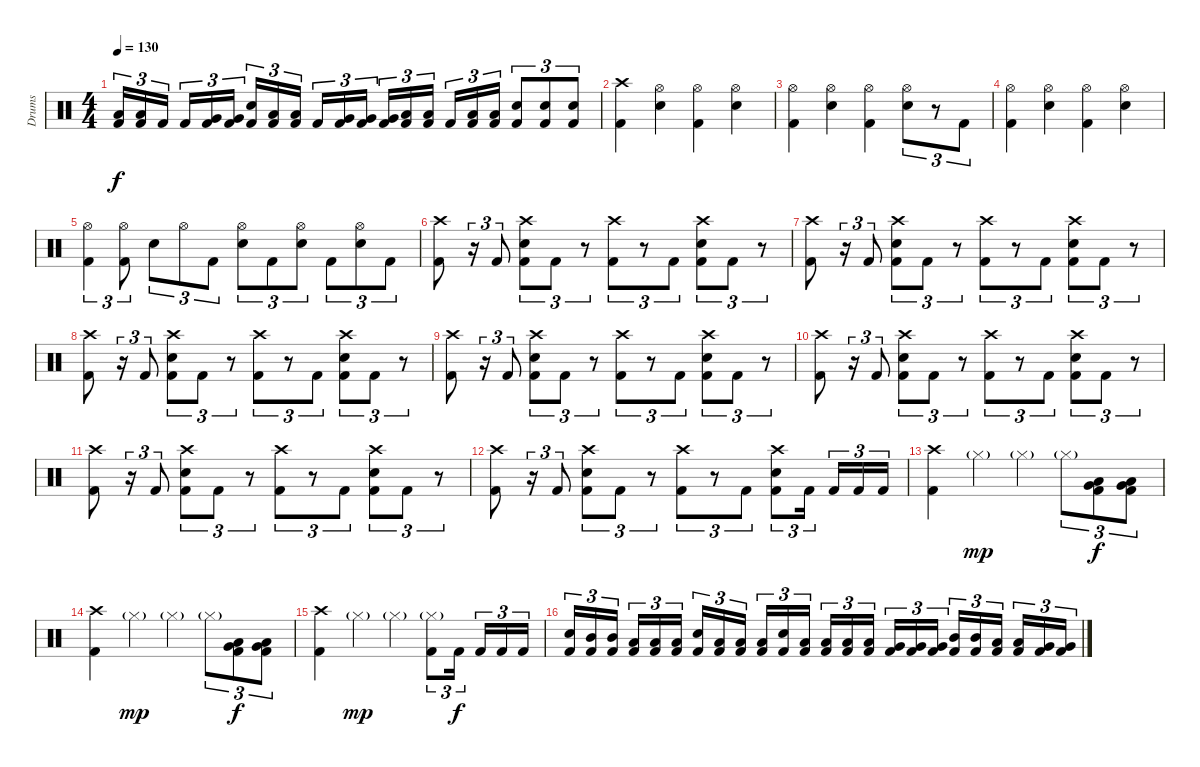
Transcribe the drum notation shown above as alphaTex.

\track ("Drums" "Drums") {instrument percussion}
\staff {score}
\articulation defaults
\ts (4 4)
\tempo 130
\clef neutral
\ks c
("Low Tom (hit)" "Kick (hit) 2").16{tu (3 2) dy f} ("Low Tom (hit)" "Kick (hit) 2").16{tu (3 2)} "Kick (hit) 2".16{tu (3 2) beam splitsecondary} "Kick (hit) 2".16{tu (3 2)} ("Very Low Tom (hit)" "Kick (hit) 2").16{tu (3 2)} ("Very Low Tom (hit)" "Kick (hit) 2").16{tu (3 2)} ("Electric Snare (hit)" "Kick (hit) 2").16{tu (3 2)} ("Low Tom (hit)" "Kick (hit) 2").16{tu (3 2)} ("Low Tom (hit)" "Kick (hit) 2").16{tu (3 2) beam splitsecondary} "Kick (hit) 2".16{tu (3 2)} ("Very Low Tom (hit)" "Kick (hit) 2").16{tu (3 2)} ("Very Low Tom (hit)" "Kick (hit) 2").16{tu (3 2)} ("Very Low Tom (hit)" "Kick (hit) 2").16{tu (3 2)} ("Low Floor Tom (hit)" "Kick (hit) 2").16{tu (3 2)} ("Low Floor Tom (hit)" "Kick (hit) 2").16{tu (3 2) beam splitsecondary} "Kick (hit) 2".16{tu (3 2)} ("Low Floor Tom (hit)" "Kick (hit) 2").16{tu (3 2)} ("Low Floor Tom (hit)" "Kick (hit) 2").16{tu (3 2)} ("Electric Snare (hit)" "Kick (hit) 2").8{tu (3 2)} ("Electric Snare (hit)" "Kick (hit) 2").8{tu (3 2)} ("Electric Snare (hit)" "Kick (hit) 2").8{tu (3 2)} |
("Crash high (hit)" "Kick (hit) 2").4 ("Hi-Hat (open)" "Electric Snare (hit)").4 ("Hi-Hat (open)" "Kick (hit) 2").4 ("Hi-Hat (open)" "Electric Snare (hit)").4 |
("Hi-Hat (open)" "Kick (hit) 2").4 ("Hi-Hat (open)" "Electric Snare (hit)").4 ("Hi-Hat (open)" "Kick (hit) 2").4 ("Hi-Hat (open)" "Electric Snare (hit)").8{tu (3 2)} r.8{tu (3 2)} "Kick (hit) 2".8{tu (3 2)} |
("Hi-Hat (open)" "Kick (hit) 2").4 ("Hi-Hat (open)" "Electric Snare (hit)").4 ("Hi-Hat (open)" "Kick (hit) 2").4 ("Hi-Hat (open)" "Electric Snare (hit)").4 |
("Hi-Hat (open)" "Kick (hit) 2").4{tu (3 2)} ("Hi-Hat (open)" "Kick (hit) 2").8{tu (3 2)} "Electric Snare (hit)".8{tu (3 2)} "Hi-Hat (open)".8{tu (3 2)} "Kick (hit) 2".8{tu (3 2)} ("Hi-Hat (open)" "Electric Snare (hit)").8{tu (3 2)} "Kick (hit) 2".8{tu (3 2)} ("Hi-Hat (open)" "Electric Snare (hit)").8{tu (3 2)} "Kick (hit) 2".8{tu (3 2)} ("Hi-Hat (open)" "Electric Snare (hit)").8{tu (3 2)} "Kick (hit) 2".8{tu (3 2)} |
("Crash high (hit)" "Kick (hit) 2").8 r.16{tu (3 2)} "Kick (hit) 2".8{tu (3 2)} ("Crash high (hit)" "Electric Snare (hit)" "Kick (hit) 2").8{tu (3 2)} "Kick (hit) 2".8{tu (3 2)} r.8{tu (3 2)} ("Crash high (hit)" "Kick (hit) 2").8{tu (3 2)} r.8{tu (3 2)} "Kick (hit) 2".8{tu (3 2)} ("Crash high (hit)" "Electric Snare (hit)" "Kick (hit) 2").8{tu (3 2)} "Kick (hit) 2".8{tu (3 2)} r.8{tu (3 2)} |
("Crash high (hit)" "Kick (hit) 2").8 r.16{tu (3 2)} "Kick (hit) 2".8{tu (3 2)} ("Crash high (hit)" "Electric Snare (hit)" "Kick (hit) 2").8{tu (3 2)} "Kick (hit) 2".8{tu (3 2)} r.8{tu (3 2)} ("Crash high (hit)" "Kick (hit) 2").8{tu (3 2)} r.8{tu (3 2)} "Kick (hit) 2".8{tu (3 2)} ("Crash high (hit)" "Electric Snare (hit)" "Kick (hit) 2").8{tu (3 2)} "Kick (hit) 2".8{tu (3 2)} r.8{tu (3 2)} |
("Crash high (hit)" "Kick (hit) 2").8 r.16{tu (3 2)} "Kick (hit) 2".8{tu (3 2)} ("Crash high (hit)" "Electric Snare (hit)" "Kick (hit) 2").8{tu (3 2)} "Kick (hit) 2".8{tu (3 2)} r.8{tu (3 2)} ("Crash high (hit)" "Kick (hit) 2").8{tu (3 2)} r.8{tu (3 2)} "Kick (hit) 2".8{tu (3 2)} ("Crash high (hit)" "Electric Snare (hit)" "Kick (hit) 2").8{tu (3 2)} "Kick (hit) 2".8{tu (3 2)} r.8{tu (3 2)} |
("Crash high (hit)" "Kick (hit) 2").8 r.16{tu (3 2)} "Kick (hit) 2".8{tu (3 2)} ("Crash high (hit)" "Electric Snare (hit)" "Kick (hit) 2").8{tu (3 2)} "Kick (hit) 2".8{tu (3 2)} r.8{tu (3 2)} ("Crash high (hit)" "Kick (hit) 2").8{tu (3 2)} r.8{tu (3 2)} "Kick (hit) 2".8{tu (3 2)} ("Crash high (hit)" "Electric Snare (hit)" "Kick (hit) 2").8{tu (3 2)} "Kick (hit) 2".8{tu (3 2)} r.8{tu (3 2)} |
("Crash high (hit)" "Kick (hit) 2").8 r.16{tu (3 2)} "Kick (hit) 2".8{tu (3 2)} ("Crash high (hit)" "Electric Snare (hit)" "Kick (hit) 2").8{tu (3 2)} "Kick (hit) 2".8{tu (3 2)} r.8{tu (3 2)} ("Crash high (hit)" "Kick (hit) 2").8{tu (3 2)} r.8{tu (3 2)} "Kick (hit) 2".8{tu (3 2)} ("Crash high (hit)" "Electric Snare (hit)" "Kick (hit) 2").8{tu (3 2)} "Kick (hit) 2".8{tu (3 2)} r.8{tu (3 2)} |
("Crash high (hit)" "Kick (hit) 2").8 r.16{tu (3 2)} "Kick (hit) 2".8{tu (3 2)} ("Crash high (hit)" "Electric Snare (hit)" "Kick (hit) 2").8{tu (3 2)} "Kick (hit) 2".8{tu (3 2)} r.8{tu (3 2)} ("Crash high (hit)" "Kick (hit) 2").8{tu (3 2)} r.8{tu (3 2)} "Kick (hit) 2".8{tu (3 2)} ("Crash high (hit)" "Electric Snare (hit)" "Kick (hit) 2").8{tu (3 2)} "Kick (hit) 2".8{tu (3 2)} r.8{tu (3 2)} |
("Crash high (hit)" "Kick (hit) 2").8 r.16{tu (3 2)} "Kick (hit) 2".8{tu (3 2)} ("Crash high (hit)" "Electric Snare (hit)" "Kick (hit) 2").8{tu (3 2)} "Kick (hit) 2".8{tu (3 2)} r.8{tu (3 2)} ("Crash high (hit)" "Kick (hit) 2").8{tu (3 2)} r.8{tu (3 2)} "Kick (hit) 2".8{tu (3 2)} ("Crash high (hit)" "Electric Snare (hit)" "Kick (hit) 2").8{tu (3 2)} "Kick (hit) 2".16{tu (3 2) beam splitsecondary} "Kick (hit) 2".16{tu (3 2)} "Kick (hit) 2".16{tu (3 2)} "Kick (hit) 2".16{tu (3 2)} |
("Crash high (hit)" "Kick (hit) 2").4 "Hi-Hat (closed)"{g}.4{dy mp} "Hi-Hat (closed)"{g}.4 "Hi-Hat (closed)"{g}.8{tu (3 2)} ("Low Tom (hit)" "Very Low Tom (hit)" "Kick (hit) 2").8{tu (3 2) dy f} ("Low Tom (hit)" "Very Low Tom (hit)" "Kick (hit) 2").8{tu (3 2)} |
("Crash high (hit)" "Kick (hit) 2").4 "Hi-Hat (closed)"{g}.4{dy mp} "Hi-Hat (closed)"{g}.4 "Hi-Hat (closed)"{g}.8{tu (3 2)} ("Low Tom (hit)" "Very Low Tom (hit)" "Kick (hit) 2").8{tu (3 2) dy f} ("Low Tom (hit)" "Very Low Tom (hit)" "Kick (hit) 2").8{tu (3 2)} |
("Crash high (hit)" "Kick (hit) 2").4 "Hi-Hat (closed)"{g}.4{dy mp} "Hi-Hat (closed)"{g}.4 ("Hi-Hat (closed)"{g} "Kick (hit) 2").8{tu (3 2)} "Kick (hit) 2".16{tu (3 2) dy f beam splitsecondary} "Kick (hit) 2".16{tu (3 2)} "Kick (hit) 2".16{tu (3 2)} "Kick (hit) 2".16{tu (3 2)} |
("Electric Snare (hit)" "Kick (hit) 2").16{tu (3 2)} ("Mid Tom (hit)" "Kick (hit) 2").16{tu (3 2)} ("Mid Tom (hit)" "Kick (hit) 2").16{tu (3 2) beam splitsecondary} ("Low Tom (hit)" "Kick (hit) 2").16{tu (3 2)} ("Low Tom (hit)" "Kick (hit) 2").16{tu (3 2)} ("Low Tom (hit)" "Kick (hit) 2").16{tu (3 2)} ("Electric Snare (hit)" "Kick (hit) 2").16{tu (3 2)} ("Low Tom (hit)" "Kick (hit) 2").16{tu (3 2)} ("Low Tom (hit)" "Kick (hit) 2").16{tu (3 2) beam splitsecondary} ("Low Tom (hit)" "Kick (hit) 2").16{tu (3 2)} ("Electric Snare (hit)" "Kick (hit) 2").16{tu (3 2)} ("Low Tom (hit)" "Kick (hit) 2").16{tu (3 2)} ("Low Tom (hit)" "Kick (hit) 2").16{tu (3 2)} ("Low Tom (hit)" "Kick (hit) 2").16{tu (3 2)} ("Low Tom (hit)" "Kick (hit) 2").16{tu (3 2) beam splitsecondary} ("Very Low Tom (hit)" "Kick (hit) 2").16{tu (3 2)} ("Very Low Tom (hit)" "Kick (hit) 2").16{tu (3 2)} ("Very Low Tom (hit)" "Kick (hit) 2").16{tu (3 2)} ("Mid Tom (hit)" "Kick (hit) 2").16{tu (3 2)} ("Mid Tom (hit)" "Kick (hit) 2").16{tu (3 2)} ("Low Tom (hit)" "Kick (hit) 2").16{tu (3 2) beam splitsecondary} ("Low Tom (hit)" "Kick (hit) 2").16{tu (3 2)} ("Very Low Tom (hit)" "Kick (hit) 2").16{tu (3 2)} ("Very Low Tom (hit)" "Kick (hit) 2").16{tu (3 2)}
